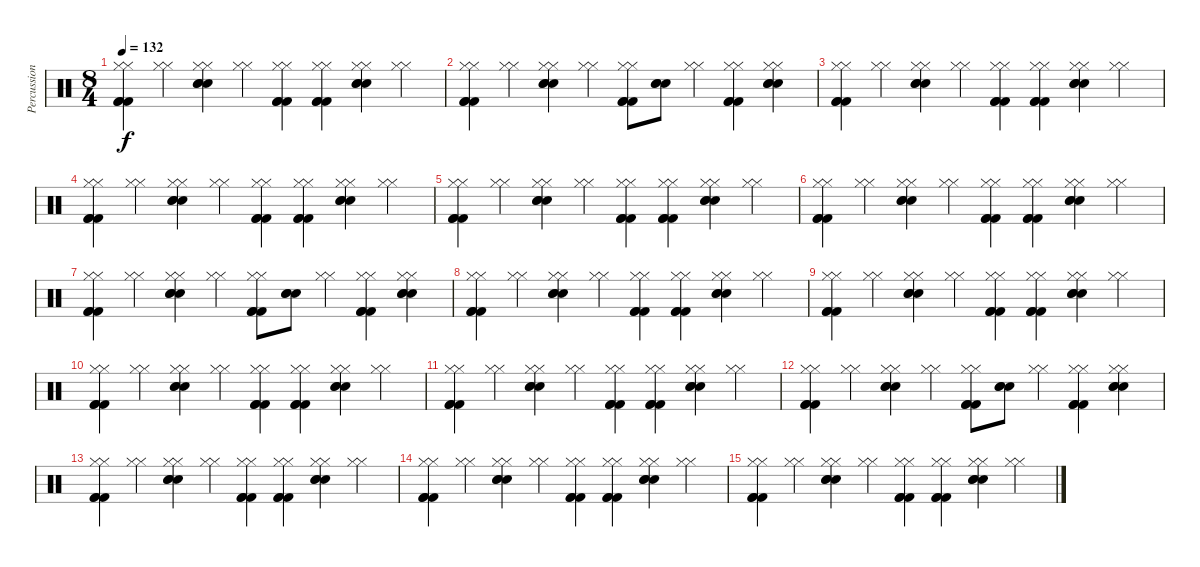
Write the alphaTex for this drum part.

\track ("Percussions" "Percussion") {instrument percussion}
\staff {score}
\articulation defaults
\ts (8 4)
\tempo 132
\clef neutral
\ks c
("Kick (hit) 2" "Kick (hit) 2" "Kick (hit) 2" "Hi-Hat (closed)" "Hi-Hat (closed)").4{dy f} ("Hi-Hat (closed)" "Hi-Hat (closed)").4 ("Electric Snare (hit)" "Electric Snare (hit)" "Electric Snare (hit)" "Hi-Hat (closed)" "Hi-Hat (closed)").4 ("Hi-Hat (closed)" "Hi-Hat (closed)").4 ("Kick (hit) 2" "Kick (hit) 2" "Kick (hit) 2" "Hi-Hat (closed)" "Hi-Hat (closed)").4 ("Kick (hit) 2" "Kick (hit) 2" "Kick (hit) 2" "Hi-Hat (closed)" "Hi-Hat (closed)").4 ("Electric Snare (hit)" "Electric Snare (hit)" "Electric Snare (hit)" "Hi-Hat (closed)" "Hi-Hat (closed)").4 ("Hi-Hat (closed)" "Hi-Hat (closed)").4 |
("Kick (hit) 2" "Kick (hit) 2" "Kick (hit) 2" "Hi-Hat (closed)" "Hi-Hat (closed)").4 ("Hi-Hat (closed)" "Hi-Hat (closed)").4 ("Electric Snare (hit)" "Electric Snare (hit)" "Electric Snare (hit)" "Hi-Hat (closed)" "Hi-Hat (closed)").4 ("Hi-Hat (closed)" "Hi-Hat (closed)").4 ("Kick (hit) 2" "Kick (hit) 2" "Kick (hit) 2" "Hi-Hat (closed)" "Hi-Hat (closed)").8 ("Electric Snare (hit)" "Electric Snare (hit)" "Electric Snare (hit)").8 ("Hi-Hat (closed)" "Hi-Hat (closed)").4 ("Kick (hit) 2" "Kick (hit) 2" "Kick (hit) 2" "Hi-Hat (closed)" "Hi-Hat (closed)").4 ("Electric Snare (hit)" "Electric Snare (hit)" "Electric Snare (hit)" "Hi-Hat (closed)" "Hi-Hat (closed)").4 |
("Kick (hit) 2" "Kick (hit) 2" "Kick (hit) 2" "Hi-Hat (closed)" "Hi-Hat (closed)").4 ("Hi-Hat (closed)" "Hi-Hat (closed)").4 ("Electric Snare (hit)" "Electric Snare (hit)" "Electric Snare (hit)" "Hi-Hat (closed)" "Hi-Hat (closed)").4 ("Hi-Hat (closed)" "Hi-Hat (closed)").4 ("Kick (hit) 2" "Kick (hit) 2" "Kick (hit) 2" "Hi-Hat (closed)" "Hi-Hat (closed)").4 ("Kick (hit) 2" "Kick (hit) 2" "Kick (hit) 2" "Hi-Hat (closed)" "Hi-Hat (closed)").4 ("Electric Snare (hit)" "Electric Snare (hit)" "Electric Snare (hit)" "Hi-Hat (closed)" "Hi-Hat (closed)").4 ("Hi-Hat (closed)" "Hi-Hat (closed)").4 |
("Kick (hit) 2" "Kick (hit) 2" "Kick (hit) 2" "Hi-Hat (closed)" "Hi-Hat (closed)").4 ("Hi-Hat (closed)" "Hi-Hat (closed)").4 ("Electric Snare (hit)" "Electric Snare (hit)" "Electric Snare (hit)" "Hi-Hat (closed)" "Hi-Hat (closed)").4 ("Hi-Hat (closed)" "Hi-Hat (closed)").4 ("Kick (hit) 2" "Kick (hit) 2" "Kick (hit) 2" "Hi-Hat (closed)" "Hi-Hat (closed)").4 ("Kick (hit) 2" "Kick (hit) 2" "Kick (hit) 2" "Hi-Hat (closed)" "Hi-Hat (closed)").4 ("Electric Snare (hit)" "Electric Snare (hit)" "Electric Snare (hit)" "Hi-Hat (closed)" "Hi-Hat (closed)").4 ("Hi-Hat (closed)" "Hi-Hat (closed)").4 |
("Kick (hit) 2" "Kick (hit) 2" "Kick (hit) 2" "Hi-Hat (closed)" "Hi-Hat (closed)").4 ("Hi-Hat (closed)" "Hi-Hat (closed)").4 ("Electric Snare (hit)" "Electric Snare (hit)" "Electric Snare (hit)" "Hi-Hat (closed)" "Hi-Hat (closed)").4 ("Hi-Hat (closed)" "Hi-Hat (closed)").4 ("Kick (hit) 2" "Kick (hit) 2" "Kick (hit) 2" "Hi-Hat (closed)" "Hi-Hat (closed)").4 ("Kick (hit) 2" "Kick (hit) 2" "Kick (hit) 2" "Hi-Hat (closed)" "Hi-Hat (closed)").4 ("Electric Snare (hit)" "Electric Snare (hit)" "Electric Snare (hit)" "Hi-Hat (closed)" "Hi-Hat (closed)").4 ("Hi-Hat (closed)" "Hi-Hat (closed)").4 |
("Kick (hit) 2" "Kick (hit) 2" "Kick (hit) 2" "Hi-Hat (closed)" "Hi-Hat (closed)").4 ("Hi-Hat (closed)" "Hi-Hat (closed)").4 ("Electric Snare (hit)" "Electric Snare (hit)" "Electric Snare (hit)" "Hi-Hat (closed)" "Hi-Hat (closed)").4 ("Hi-Hat (closed)" "Hi-Hat (closed)").4 ("Kick (hit) 2" "Kick (hit) 2" "Kick (hit) 2" "Hi-Hat (closed)" "Hi-Hat (closed)").4 ("Kick (hit) 2" "Kick (hit) 2" "Kick (hit) 2" "Hi-Hat (closed)" "Hi-Hat (closed)").4 ("Electric Snare (hit)" "Electric Snare (hit)" "Electric Snare (hit)" "Hi-Hat (closed)" "Hi-Hat (closed)").4 ("Hi-Hat (closed)" "Hi-Hat (closed)").4 |
("Kick (hit) 2" "Kick (hit) 2" "Kick (hit) 2" "Hi-Hat (closed)" "Hi-Hat (closed)").4 ("Hi-Hat (closed)" "Hi-Hat (closed)").4 ("Electric Snare (hit)" "Electric Snare (hit)" "Electric Snare (hit)" "Hi-Hat (closed)" "Hi-Hat (closed)").4 ("Hi-Hat (closed)" "Hi-Hat (closed)").4 ("Kick (hit) 2" "Kick (hit) 2" "Kick (hit) 2" "Hi-Hat (closed)" "Hi-Hat (closed)").8 ("Electric Snare (hit)" "Electric Snare (hit)" "Electric Snare (hit)").8 ("Hi-Hat (closed)" "Hi-Hat (closed)").4 ("Kick (hit) 2" "Kick (hit) 2" "Kick (hit) 2" "Hi-Hat (closed)" "Hi-Hat (closed)").4 ("Electric Snare (hit)" "Electric Snare (hit)" "Electric Snare (hit)" "Hi-Hat (closed)" "Hi-Hat (closed)").4 |
("Kick (hit) 2" "Kick (hit) 2" "Kick (hit) 2" "Hi-Hat (closed)" "Hi-Hat (closed)").4 ("Hi-Hat (closed)" "Hi-Hat (closed)").4 ("Electric Snare (hit)" "Electric Snare (hit)" "Electric Snare (hit)" "Hi-Hat (closed)" "Hi-Hat (closed)").4 ("Hi-Hat (closed)" "Hi-Hat (closed)").4 ("Kick (hit) 2" "Kick (hit) 2" "Kick (hit) 2" "Hi-Hat (closed)" "Hi-Hat (closed)").4 ("Kick (hit) 2" "Kick (hit) 2" "Kick (hit) 2" "Hi-Hat (closed)" "Hi-Hat (closed)").4 ("Electric Snare (hit)" "Electric Snare (hit)" "Electric Snare (hit)" "Hi-Hat (closed)" "Hi-Hat (closed)").4 ("Hi-Hat (closed)" "Hi-Hat (closed)").4 |
("Kick (hit) 2" "Kick (hit) 2" "Kick (hit) 2" "Hi-Hat (closed)" "Hi-Hat (closed)").4 ("Hi-Hat (closed)" "Hi-Hat (closed)").4 ("Electric Snare (hit)" "Electric Snare (hit)" "Electric Snare (hit)" "Hi-Hat (closed)" "Hi-Hat (closed)").4 ("Hi-Hat (closed)" "Hi-Hat (closed)").4 ("Kick (hit) 2" "Kick (hit) 2" "Kick (hit) 2" "Hi-Hat (closed)" "Hi-Hat (closed)").4 ("Kick (hit) 2" "Kick (hit) 2" "Kick (hit) 2" "Hi-Hat (closed)" "Hi-Hat (closed)").4 ("Electric Snare (hit)" "Electric Snare (hit)" "Electric Snare (hit)" "Hi-Hat (closed)" "Hi-Hat (closed)").4 ("Hi-Hat (closed)" "Hi-Hat (closed)").4 |
("Kick (hit) 2" "Kick (hit) 2" "Kick (hit) 2" "Hi-Hat (closed)" "Hi-Hat (closed)").4 ("Hi-Hat (closed)" "Hi-Hat (closed)").4 ("Electric Snare (hit)" "Electric Snare (hit)" "Electric Snare (hit)" "Hi-Hat (closed)" "Hi-Hat (closed)").4 ("Hi-Hat (closed)" "Hi-Hat (closed)").4 ("Kick (hit) 2" "Kick (hit) 2" "Kick (hit) 2" "Hi-Hat (closed)" "Hi-Hat (closed)").4 ("Kick (hit) 2" "Kick (hit) 2" "Kick (hit) 2" "Hi-Hat (closed)" "Hi-Hat (closed)").4 ("Electric Snare (hit)" "Electric Snare (hit)" "Electric Snare (hit)" "Hi-Hat (closed)" "Hi-Hat (closed)").4 ("Hi-Hat (closed)" "Hi-Hat (closed)").4 |
("Kick (hit) 2" "Kick (hit) 2" "Kick (hit) 2" "Hi-Hat (closed)" "Hi-Hat (closed)").4 ("Hi-Hat (closed)" "Hi-Hat (closed)").4 ("Electric Snare (hit)" "Electric Snare (hit)" "Electric Snare (hit)" "Hi-Hat (closed)" "Hi-Hat (closed)").4 ("Hi-Hat (closed)" "Hi-Hat (closed)").4 ("Kick (hit) 2" "Kick (hit) 2" "Kick (hit) 2" "Hi-Hat (closed)" "Hi-Hat (closed)").4 ("Kick (hit) 2" "Kick (hit) 2" "Kick (hit) 2" "Hi-Hat (closed)" "Hi-Hat (closed)").4 ("Electric Snare (hit)" "Electric Snare (hit)" "Electric Snare (hit)" "Hi-Hat (closed)" "Hi-Hat (closed)").4 ("Hi-Hat (closed)" "Hi-Hat (closed)").4 |
("Kick (hit) 2" "Kick (hit) 2" "Kick (hit) 2" "Hi-Hat (closed)" "Hi-Hat (closed)").4 ("Hi-Hat (closed)" "Hi-Hat (closed)").4 ("Electric Snare (hit)" "Electric Snare (hit)" "Electric Snare (hit)" "Hi-Hat (closed)" "Hi-Hat (closed)").4 ("Hi-Hat (closed)" "Hi-Hat (closed)").4 ("Kick (hit) 2" "Kick (hit) 2" "Kick (hit) 2" "Hi-Hat (closed)" "Hi-Hat (closed)").8 ("Electric Snare (hit)" "Electric Snare (hit)" "Electric Snare (hit)").8 ("Hi-Hat (closed)" "Hi-Hat (closed)").4 ("Kick (hit) 2" "Kick (hit) 2" "Kick (hit) 2" "Hi-Hat (closed)" "Hi-Hat (closed)").4 ("Electric Snare (hit)" "Electric Snare (hit)" "Electric Snare (hit)" "Hi-Hat (closed)" "Hi-Hat (closed)").4 |
("Kick (hit) 2" "Kick (hit) 2" "Kick (hit) 2" "Hi-Hat (closed)" "Hi-Hat (closed)").4 ("Hi-Hat (closed)" "Hi-Hat (closed)").4 ("Electric Snare (hit)" "Electric Snare (hit)" "Electric Snare (hit)" "Hi-Hat (closed)" "Hi-Hat (closed)").4 ("Hi-Hat (closed)" "Hi-Hat (closed)").4 ("Kick (hit) 2" "Kick (hit) 2" "Kick (hit) 2" "Hi-Hat (closed)" "Hi-Hat (closed)").4 ("Kick (hit) 2" "Kick (hit) 2" "Kick (hit) 2" "Hi-Hat (closed)" "Hi-Hat (closed)").4 ("Electric Snare (hit)" "Electric Snare (hit)" "Electric Snare (hit)" "Hi-Hat (closed)" "Hi-Hat (closed)").4 ("Hi-Hat (closed)" "Hi-Hat (closed)").4 |
("Kick (hit) 2" "Kick (hit) 2" "Kick (hit) 2" "Hi-Hat (closed)" "Hi-Hat (closed)").4 ("Hi-Hat (closed)" "Hi-Hat (closed)").4 ("Electric Snare (hit)" "Electric Snare (hit)" "Electric Snare (hit)" "Hi-Hat (closed)" "Hi-Hat (closed)").4 ("Hi-Hat (closed)" "Hi-Hat (closed)").4 ("Kick (hit) 2" "Kick (hit) 2" "Kick (hit) 2" "Hi-Hat (closed)" "Hi-Hat (closed)").4 ("Kick (hit) 2" "Kick (hit) 2" "Kick (hit) 2" "Hi-Hat (closed)" "Hi-Hat (closed)").4 ("Electric Snare (hit)" "Electric Snare (hit)" "Electric Snare (hit)" "Hi-Hat (closed)" "Hi-Hat (closed)").4 ("Hi-Hat (closed)" "Hi-Hat (closed)").4 |
("Kick (hit) 2" "Kick (hit) 2" "Kick (hit) 2" "Hi-Hat (closed)" "Hi-Hat (closed)").4 ("Hi-Hat (closed)" "Hi-Hat (closed)").4 ("Electric Snare (hit)" "Electric Snare (hit)" "Electric Snare (hit)" "Hi-Hat (closed)" "Hi-Hat (closed)").4 ("Hi-Hat (closed)" "Hi-Hat (closed)").4 ("Kick (hit) 2" "Kick (hit) 2" "Kick (hit) 2" "Hi-Hat (closed)" "Hi-Hat (closed)").4 ("Kick (hit) 2" "Kick (hit) 2" "Kick (hit) 2" "Hi-Hat (closed)" "Hi-Hat (closed)").4 ("Electric Snare (hit)" "Electric Snare (hit)" "Electric Snare (hit)" "Hi-Hat (closed)" "Hi-Hat (closed)").4 ("Hi-Hat (closed)" "Hi-Hat (closed)").4
